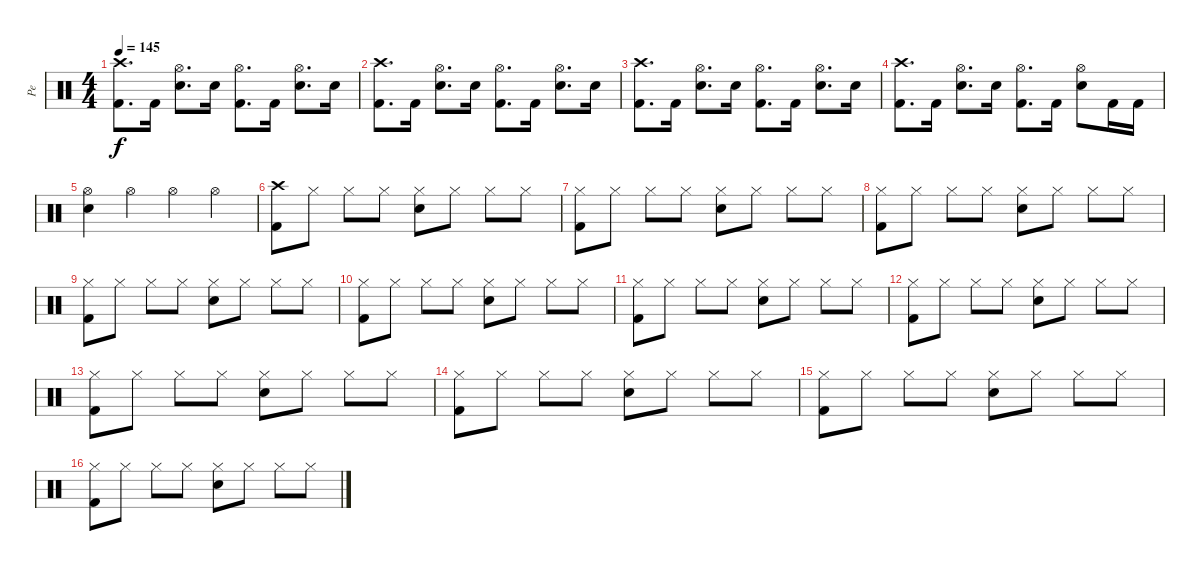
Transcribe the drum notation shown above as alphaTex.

\track ("Pe" "Pe") {instrument percussion}
\staff {score}
\articulation defaults
\ts (4 4)
\tempo 145
\clef neutral
\ks c
("Kick (hit) 2" "Crash high (hit)").8{d dy f} "Kick (hit) 2".16 ("Snare (hit) 2" "Hi-Hat (open)").8{d} "Snare (hit) 2".16 ("Kick (hit) 2" "Hi-Hat (open)").8{d} "Kick (hit) 2".16 ("Snare (hit) 2" "Hi-Hat (open)").8{d} "Snare (hit) 2".16 |
("Kick (hit) 2" "Crash high (hit)").8{d} "Kick (hit) 2".16 ("Snare (hit) 2" "Hi-Hat (open)").8{d} "Snare (hit) 2".16 ("Kick (hit) 2" "Hi-Hat (open)").8{d} "Kick (hit) 2".16 ("Snare (hit) 2" "Hi-Hat (open)").8{d} "Snare (hit) 2".16 |
("Kick (hit) 2" "Crash high (hit)").8{d} "Kick (hit) 2".16 ("Snare (hit) 2" "Hi-Hat (open)").8{d} "Snare (hit) 2".16 ("Kick (hit) 2" "Hi-Hat (open)").8{d} "Kick (hit) 2".16 ("Snare (hit) 2" "Hi-Hat (open)").8{d} "Snare (hit) 2".16 |
("Kick (hit) 2" "Crash high (hit)").8{d} "Kick (hit) 2".16 ("Snare (hit) 2" "Hi-Hat (open)").8{d} "Snare (hit) 2".16 ("Kick (hit) 2" "Hi-Hat (open)").8{d} "Kick (hit) 2".16 ("Snare (hit) 2" "Hi-Hat (open)").8 "Kick (hit) 2".16 "Kick (hit) 2".16 |
("Snare (hit) 2" "Hi-Hat (open)").4 "Hi-Hat (open)".4 "Hi-Hat (open)".4 "Hi-Hat (open)".4 |
("Kick (hit) 2" "Crash high (hit)").8 "Hi-Hat (closed)".8 "Hi-Hat (closed)".8 "Hi-Hat (closed)".8 ("Snare (hit) 2" "Hi-Hat (closed)").8 "Hi-Hat (closed)".8 "Hi-Hat (closed)".8 "Hi-Hat (closed)".8 |
("Kick (hit) 2" "Hi-Hat (closed)").8 "Hi-Hat (closed)".8 "Hi-Hat (closed)".8 "Hi-Hat (closed)".8 ("Snare (hit) 2" "Hi-Hat (closed)").8 "Hi-Hat (closed)".8 "Hi-Hat (closed)".8 "Hi-Hat (closed)".8 |
("Kick (hit) 2" "Hi-Hat (closed)").8 "Hi-Hat (closed)".8 "Hi-Hat (closed)".8 "Hi-Hat (closed)".8 ("Snare (hit) 2" "Hi-Hat (closed)").8 "Hi-Hat (closed)".8 "Hi-Hat (closed)".8 "Hi-Hat (closed)".8 |
("Kick (hit) 2" "Hi-Hat (closed)").8 "Hi-Hat (closed)".8 "Hi-Hat (closed)".8 "Hi-Hat (closed)".8 ("Snare (hit) 2" "Hi-Hat (closed)").8 "Hi-Hat (closed)".8 "Hi-Hat (closed)".8 "Hi-Hat (closed)".8 |
("Kick (hit) 2" "Hi-Hat (closed)").8 "Hi-Hat (closed)".8 "Hi-Hat (closed)".8 "Hi-Hat (closed)".8 ("Snare (hit) 2" "Hi-Hat (closed)").8 "Hi-Hat (closed)".8 "Hi-Hat (closed)".8 "Hi-Hat (closed)".8 |
("Kick (hit) 2" "Hi-Hat (closed)").8 "Hi-Hat (closed)".8 "Hi-Hat (closed)".8 "Hi-Hat (closed)".8 ("Snare (hit) 2" "Hi-Hat (closed)").8 "Hi-Hat (closed)".8 "Hi-Hat (closed)".8 "Hi-Hat (closed)".8 |
("Kick (hit) 2" "Hi-Hat (closed)").8 "Hi-Hat (closed)".8 "Hi-Hat (closed)".8 "Hi-Hat (closed)".8 ("Snare (hit) 2" "Hi-Hat (closed)").8 "Hi-Hat (closed)".8 "Hi-Hat (closed)".8 "Hi-Hat (closed)".8 |
("Kick (hit) 2" "Hi-Hat (closed)").8 "Hi-Hat (closed)".8 "Hi-Hat (closed)".8 "Hi-Hat (closed)".8 ("Snare (hit) 2" "Hi-Hat (closed)").8 "Hi-Hat (closed)".8 "Hi-Hat (closed)".8 "Hi-Hat (closed)".8 |
("Kick (hit) 2" "Hi-Hat (closed)").8 "Hi-Hat (closed)".8 "Hi-Hat (closed)".8 "Hi-Hat (closed)".8 ("Snare (hit) 2" "Hi-Hat (closed)").8 "Hi-Hat (closed)".8 "Hi-Hat (closed)".8 "Hi-Hat (closed)".8 |
("Kick (hit) 2" "Hi-Hat (closed)").8 "Hi-Hat (closed)".8 "Hi-Hat (closed)".8 "Hi-Hat (closed)".8 ("Snare (hit) 2" "Hi-Hat (closed)").8 "Hi-Hat (closed)".8 "Hi-Hat (closed)".8 "Hi-Hat (closed)".8 |
("Kick (hit) 2" "Hi-Hat (closed)").8 "Hi-Hat (closed)".8 "Hi-Hat (closed)".8 "Hi-Hat (closed)".8 ("Snare (hit) 2" "Hi-Hat (closed)").8 "Hi-Hat (closed)".8 "Hi-Hat (closed)".8 "Hi-Hat (closed)".8
